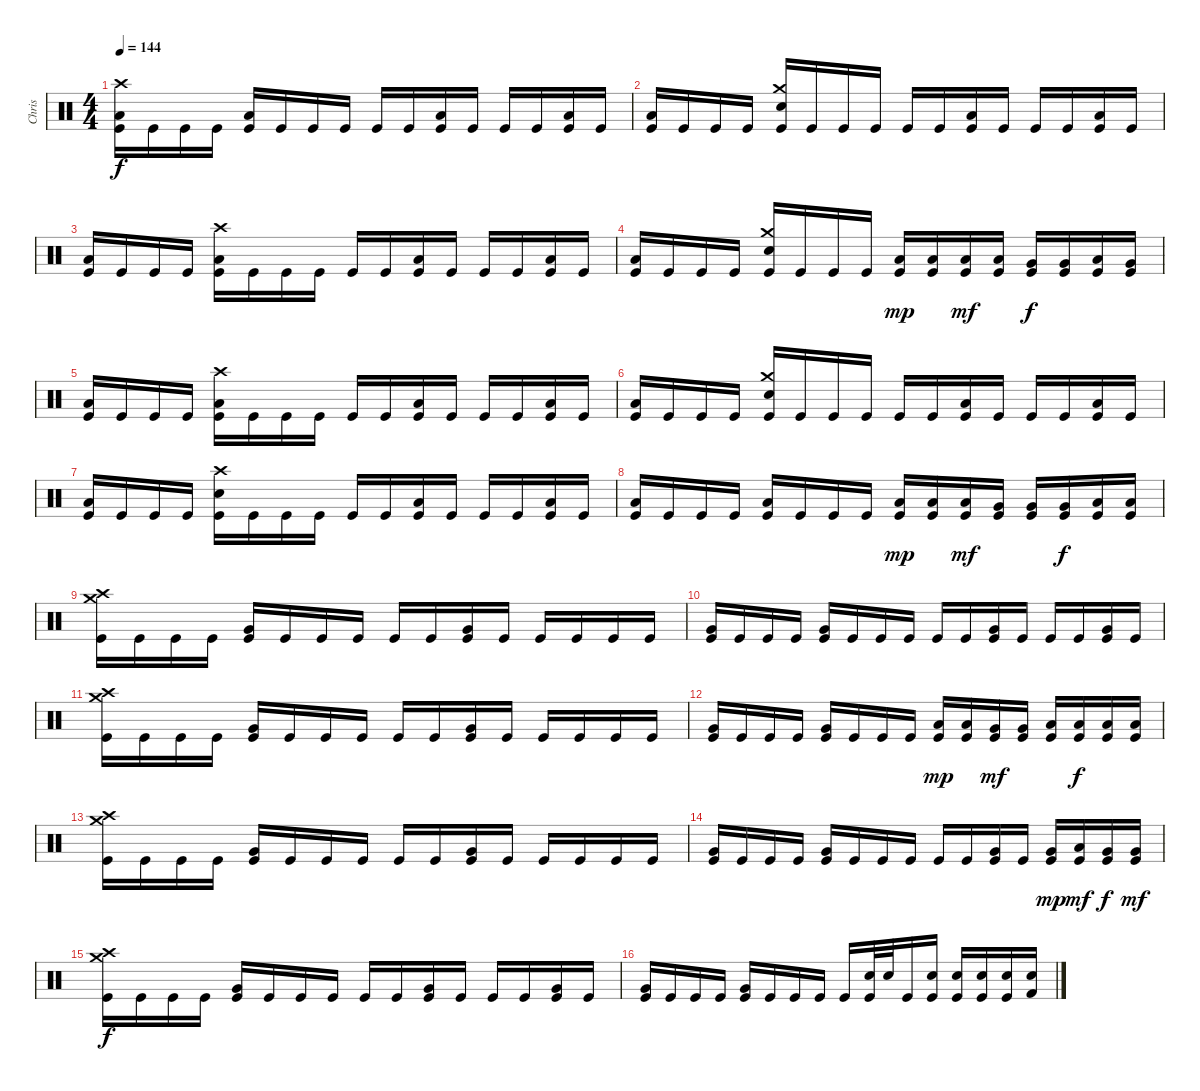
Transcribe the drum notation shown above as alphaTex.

\track ("Chris" "Chris") {instrument percussion}
\staff {score}
\articulation defaults
\ts (4 4)
\tempo 144
\clef neutral
\ks c
("Crash high (hit)" "Low Floor Tom (hit)" "Kick (hit)").16{dy f} "Kick (hit)".16 "Kick (hit)".16 "Kick (hit)".16 ("Low Floor Tom (hit)" "Kick (hit)").16 "Kick (hit)".16 "Kick (hit)".16 "Kick (hit)".16 "Kick (hit)".16 "Kick (hit)".16 ("Low Floor Tom (hit)" "Kick (hit)").16 "Kick (hit)".16 "Kick (hit)".16 "Kick (hit)".16 ("Low Floor Tom (hit)" "Kick (hit)").16 "Kick (hit)".16 |
("Low Floor Tom (hit)" "Kick (hit)").16 "Kick (hit)".16 "Kick (hit)".16 "Kick (hit)".16 ("Crash medium (hit)" "Electric Snare (hit)" "Kick (hit)").16 "Kick (hit)".16 "Kick (hit)".16 "Kick (hit)".16 "Kick (hit)".16 "Kick (hit)".16 ("Low Floor Tom (hit)" "Kick (hit)").16 "Kick (hit)".16 "Kick (hit)".16 "Kick (hit)".16 ("Low Floor Tom (hit)" "Kick (hit)").16 "Kick (hit)".16 |
("Low Floor Tom (hit)" "Kick (hit)").16 "Kick (hit)".16 "Kick (hit)".16 "Kick (hit)".16 ("Crash high (hit)" "Low Floor Tom (hit)" "Kick (hit)").16 "Kick (hit)".16 "Kick (hit)".16 "Kick (hit)".16 "Kick (hit)".16 "Kick (hit)".16 ("Low Floor Tom (hit)" "Kick (hit)").16 "Kick (hit)".16 "Kick (hit)".16 "Kick (hit)".16 ("Low Floor Tom (hit)" "Kick (hit)").16 "Kick (hit)".16 |
("Low Floor Tom (hit)" "Kick (hit)").16 "Kick (hit)".16 "Kick (hit)".16 "Kick (hit)".16 ("Crash medium (hit)" "Electric Snare (hit)" "Kick (hit)").16 "Kick (hit)".16 "Kick (hit)".16 "Kick (hit)".16 ("Low Tom (hit)" "Kick (hit)").16{dy mp} ("Low Tom (hit)" "Kick (hit)").16 ("Low Tom (hit)" "Kick (hit)").16{dy mf} ("Low Tom (hit)" "Kick (hit)").16 ("Very Low Tom (hit)" "Kick (hit)").16{dy f} ("Very Low Tom (hit)" "Kick (hit)").16 ("Low Floor Tom (hit)" "Kick (hit)").16 ("Very Low Tom (hit)" "Kick (hit)").16 |
("Low Floor Tom (hit)" "Kick (hit)").16 "Kick (hit)".16 "Kick (hit)".16 "Kick (hit)".16 ("Crash high (hit)" "Low Floor Tom (hit)" "Kick (hit)").16 "Kick (hit)".16 "Kick (hit)".16 "Kick (hit)".16 "Kick (hit)".16 "Kick (hit)".16 ("Low Floor Tom (hit)" "Kick (hit)").16 "Kick (hit)".16 "Kick (hit)".16 "Kick (hit)".16 ("Low Floor Tom (hit)" "Kick (hit)").16 "Kick (hit)".16 |
("Low Floor Tom (hit)" "Kick (hit)").16 "Kick (hit)".16 "Kick (hit)".16 "Kick (hit)".16 ("Crash medium (hit)" "Electric Snare (hit)" "Kick (hit)").16 "Kick (hit)".16 "Kick (hit)".16 "Kick (hit)".16 "Kick (hit)".16 "Kick (hit)".16 ("Low Floor Tom (hit)" "Kick (hit)").16 "Kick (hit)".16 "Kick (hit)".16 "Kick (hit)".16 ("Low Floor Tom (hit)" "Kick (hit)").16 "Kick (hit)".16 |
("Low Floor Tom (hit)" "Kick (hit)").16 "Kick (hit)".16 "Kick (hit)".16 "Kick (hit)".16 ("Crash high (hit)" "Electric Snare (hit)" "Kick (hit)").16 "Kick (hit)".16 "Kick (hit)".16 "Kick (hit)".16 "Kick (hit)".16 "Kick (hit)".16 ("Low Floor Tom (hit)" "Kick (hit)").16 "Kick (hit)".16 "Kick (hit)".16 "Kick (hit)".16 ("Low Floor Tom (hit)" "Kick (hit)").16 "Kick (hit)".16 |
("Low Floor Tom (hit)" "Kick (hit)").16 "Kick (hit)".16 "Kick (hit)".16 "Kick (hit)".16 ("Low Floor Tom (hit)" "Kick (hit)").16 "Kick (hit)".16 "Kick (hit)".16 "Kick (hit)".16 ("Low Tom (hit)" "Kick (hit)").16{dy mp} ("Low Tom (hit)" "Kick (hit)").16 ("Low Tom (hit)" "Kick (hit)").16{dy mf} ("Very Low Tom (hit)" "Kick (hit)").16 ("Very Low Tom (hit)" "Kick (hit)").16 ("Very Low Tom (hit)" "Kick (hit)").16{dy f} ("Low Floor Tom (hit)" "Kick (hit)").16 ("Low Floor Tom (hit)" "Kick (hit)").16 |
("Crash high (hit)" "Crash medium (hit)" "Kick (hit)").16 "Kick (hit)".16 "Kick (hit)".16 "Kick (hit)".16 ("Very Low Tom (hit)" "Kick (hit)").16 "Kick (hit)".16 "Kick (hit)".16 "Kick (hit)".16 "Kick (hit)".16 "Kick (hit)".16 ("Very Low Tom (hit)" "Kick (hit)").16 "Kick (hit)".16 "Kick (hit)".16 "Kick (hit)".16 "Kick (hit)".16 "Kick (hit)".16 |
("Very Low Tom (hit)" "Kick (hit)").16 "Kick (hit)".16 "Kick (hit)".16 "Kick (hit)".16 ("Very Low Tom (hit)" "Kick (hit)").16 "Kick (hit)".16 "Kick (hit)".16 "Kick (hit)".16 "Kick (hit)".16 "Kick (hit)".16 ("Very Low Tom (hit)" "Kick (hit)").16 "Kick (hit)".16 "Kick (hit)".16 "Kick (hit)".16 ("Very Low Tom (hit)" "Kick (hit)").16 "Kick (hit)".16 |
("Crash high (hit)" "Crash medium (hit)" "Kick (hit)").16 "Kick (hit)".16 "Kick (hit)".16 "Kick (hit)".16 ("Very Low Tom (hit)" "Kick (hit)").16 "Kick (hit)".16 "Kick (hit)".16 "Kick (hit)".16 "Kick (hit)".16 "Kick (hit)".16 ("Very Low Tom (hit)" "Kick (hit)").16 "Kick (hit)".16 "Kick (hit)".16 "Kick (hit)".16 "Kick (hit)".16 "Kick (hit)".16 |
("Very Low Tom (hit)" "Kick (hit)").16 "Kick (hit)".16 "Kick (hit)".16 "Kick (hit)".16 ("Very Low Tom (hit)" "Kick (hit)").16 "Kick (hit)".16 "Kick (hit)".16 "Kick (hit)".16 ("Low Tom (hit)" "Kick (hit)").16{dy mp} ("Low Tom (hit)" "Kick (hit)").16 ("Very Low Tom (hit)" "Kick (hit)").16{dy mf} ("Very Low Tom (hit)" "Kick (hit)").16 ("Low Floor Tom (hit)" "Kick (hit)").16 ("Low Floor Tom (hit)" "Kick (hit)").16{dy f} ("Low Floor Tom (hit)" "Kick (hit)").16 ("Low Floor Tom (hit)" "Kick (hit)").16 |
("Crash high (hit)" "Crash medium (hit)" "Kick (hit)").16 "Kick (hit)".16 "Kick (hit)".16 "Kick (hit)".16 ("Very Low Tom (hit)" "Kick (hit)").16 "Kick (hit)".16 "Kick (hit)".16 "Kick (hit)".16 "Kick (hit)".16 "Kick (hit)".16 ("Very Low Tom (hit)" "Kick (hit)").16 "Kick (hit)".16 "Kick (hit)".16 "Kick (hit)".16 "Kick (hit)".16 "Kick (hit)".16 |
("Very Low Tom (hit)" "Kick (hit)").16 "Kick (hit)".16 "Kick (hit)".16 "Kick (hit)".16 ("Very Low Tom (hit)" "Kick (hit)").16 "Kick (hit)".16 "Kick (hit)".16 "Kick (hit)".16 "Kick (hit)".16 "Kick (hit)".16 ("Very Low Tom (hit)" "Kick (hit)").16 "Kick (hit)".16 ("Very Low Tom (hit)" "Kick (hit)").16{dy mp} ("Low Floor Tom (hit)" "Kick (hit)").16{dy mf} ("Very Low Tom (hit)" "Kick (hit)").16{dy f} ("Very Low Tom (hit)" "Kick (hit)").16{dy mf} |
("Crash high (hit)" "Crash medium (hit)" "Kick (hit)").16{dy f} "Kick (hit)".16 "Kick (hit)".16 "Kick (hit)".16 ("Very Low Tom (hit)" "Kick (hit)").16 "Kick (hit)".16 "Kick (hit)".16 "Kick (hit)".16 "Kick (hit)".16 "Kick (hit)".16 ("Very Low Tom (hit)" "Kick (hit)").16 "Kick (hit)".16 "Kick (hit)".16 "Kick (hit)".16 ("Very Low Tom (hit)" "Kick (hit)").16 "Kick (hit)".16 |
("Very Low Tom (hit)" "Kick (hit)").16 "Kick (hit)".16 "Kick (hit)".16 "Kick (hit)".16 ("Very Low Tom (hit)" "Kick (hit)").16 "Kick (hit)".16 "Kick (hit)".16 "Kick (hit)".16 "Kick (hit)".16 ("Electric Snare (hit)" "Kick (hit)").32 "Electric Snare (hit)".32 "Kick (hit)".16 ("Electric Snare (hit)" "Kick (hit)").16 ("Electric Snare (hit)" "Kick (hit)").16 ("Electric Snare (hit)" "Kick (hit)").16 ("Electric Snare (hit)" "Kick (hit)").16 ("Electric Snare (hit)" "Kick (hit) 2").16
